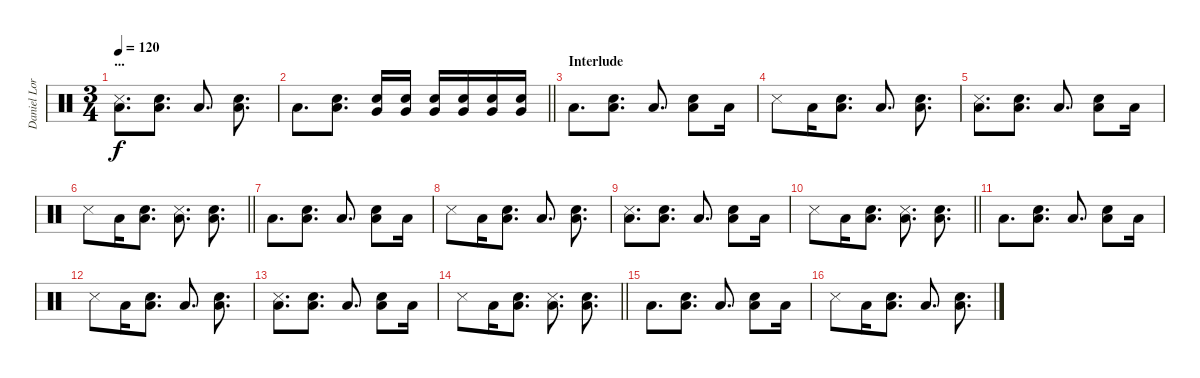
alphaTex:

\track ("Daniel Lorca " "Daniel Lor") {instrument percussion}
\staff {score}
\articulation defaults
\ts (3 4)
\section ("" "...")
\tempo 120
\clef neutral
\ks c
("Low Floor Tom (hit)" "Metronome (hit)").8{d dy f} ("Low Floor Tom (hit)" "Electric Snare (hit)").8{d} "Low Floor Tom (hit)".8{d} ("Low Floor Tom (hit)" "Electric Snare (hit)").8{d} |
\barLineRight lightlight "Low Floor Tom (hit)".8{d}
("Low Floor Tom (hit)" "Electric Snare (hit)").8{d} ("Very Low Tom (hit)" "Electric Snare (hit)").16 ("Very Low Tom (hit)" "Electric Snare (hit)").16 ("Very Low Tom (hit)" "Electric Snare (hit)").16 ("Very Low Tom (hit)" "Electric Snare (hit)").16 ("Very Low Tom (hit)" "Electric Snare (hit)").16 ("Very Low Tom (hit)" "Electric Snare (hit)").16 |
\section ("" "Interlude")
"Low Floor Tom (hit)".8{d} ("Low Floor Tom (hit)" "Electric Snare (hit)").8{d} "Low Floor Tom (hit)".8{d} ("Low Floor Tom (hit)" "Electric Snare (hit)").8 "Low Floor Tom (hit)".16 |
"Snare (side stick) 3".8 "Low Floor Tom (hit)".16 ("Low Floor Tom (hit)" "Electric Snare (hit)").8{d} "Low Floor Tom (hit)".8{d} ("Low Floor Tom (hit)" "Electric Snare (hit)").8{d} |
("Low Floor Tom (hit)" "Metronome (hit)").8{d} ("Low Floor Tom (hit)" "Electric Snare (hit)").8{d} "Low Floor Tom (hit)".8{d} ("Low Floor Tom (hit)" "Electric Snare (hit)").8 "Low Floor Tom (hit)".16 |
\barLineRight lightlight "Snare (side stick) 3".8 "Low Floor Tom (hit)".16
("Low Floor Tom (hit)" "Electric Snare (hit)").8{d} ("Low Floor Tom (hit)" "Metronome (hit)").8{d} ("Low Floor Tom (hit)" "Electric Snare (hit)").8{d} |
"Low Floor Tom (hit)".8{d} ("Low Floor Tom (hit)" "Electric Snare (hit)").8{d} "Low Floor Tom (hit)".8{d} ("Low Floor Tom (hit)" "Electric Snare (hit)").8 "Low Floor Tom (hit)".16 |
"Snare (side stick) 3".8 "Low Floor Tom (hit)".16 ("Low Floor Tom (hit)" "Electric Snare (hit)").8{d} "Low Floor Tom (hit)".8{d} ("Low Floor Tom (hit)" "Electric Snare (hit)").8{d} |
("Low Floor Tom (hit)" "Metronome (hit)").8{d} ("Low Floor Tom (hit)" "Electric Snare (hit)").8{d} "Low Floor Tom (hit)".8{d} ("Low Floor Tom (hit)" "Electric Snare (hit)").8 "Low Floor Tom (hit)".16 |
\barLineRight lightlight "Snare (side stick) 3".8 "Low Floor Tom (hit)".16
("Low Floor Tom (hit)" "Electric Snare (hit)").8{d} ("Low Floor Tom (hit)" "Metronome (hit)").8{d} ("Low Floor Tom (hit)" "Electric Snare (hit)").8{d} |
"Low Floor Tom (hit)".8{d} ("Low Floor Tom (hit)" "Electric Snare (hit)").8{d} "Low Floor Tom (hit)".8{d} ("Low Floor Tom (hit)" "Electric Snare (hit)").8 "Low Floor Tom (hit)".16 |
"Snare (side stick) 3".8 "Low Floor Tom (hit)".16 ("Low Floor Tom (hit)" "Electric Snare (hit)").8{d} "Low Floor Tom (hit)".8{d} ("Low Floor Tom (hit)" "Electric Snare (hit)").8{d} |
("Low Floor Tom (hit)" "Metronome (hit)").8{d} ("Low Floor Tom (hit)" "Electric Snare (hit)").8{d} "Low Floor Tom (hit)".8{d} ("Low Floor Tom (hit)" "Electric Snare (hit)").8 "Low Floor Tom (hit)".16 |
\barLineRight lightlight "Snare (side stick) 3".8 "Low Floor Tom (hit)".16
("Low Floor Tom (hit)" "Electric Snare (hit)").8{d} ("Low Floor Tom (hit)" "Metronome (hit)").8{d} ("Low Floor Tom (hit)" "Electric Snare (hit)").8{d} |
"Low Floor Tom (hit)".8{d} ("Low Floor Tom (hit)" "Electric Snare (hit)").8{d} "Low Floor Tom (hit)".8{d} ("Low Floor Tom (hit)" "Electric Snare (hit)").8 "Low Floor Tom (hit)".16 |
"Snare (side stick) 3".8 "Low Floor Tom (hit)".16 ("Low Floor Tom (hit)" "Electric Snare (hit)").8{d} "Low Floor Tom (hit)".8{d} ("Low Floor Tom (hit)" "Electric Snare (hit)").8{d}
